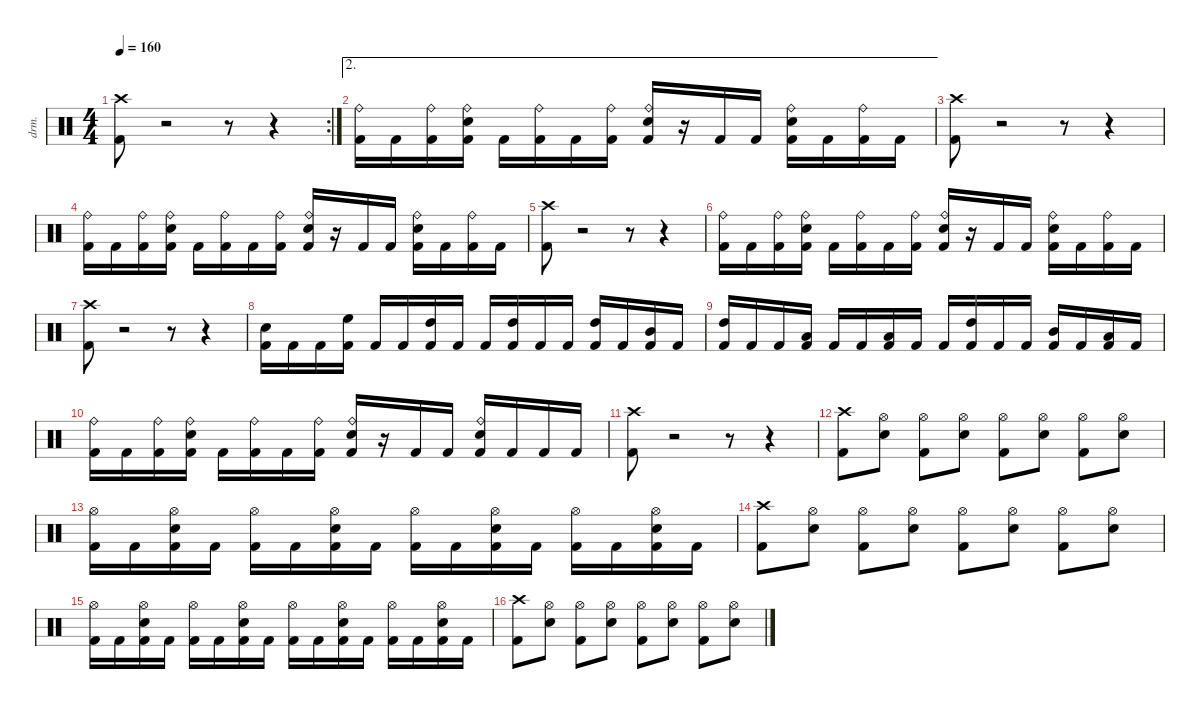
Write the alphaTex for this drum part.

\defaultSystemsLayout 4
\hideDynamics
\bracketExtendMode nobrackets
\track ("Menza" "drm.") {instrument percussion}
\staff {score}
\articulation defaults
\rc 2
\ts (4 4)
\tempo 160
\clef neutral
\ks c
("Crash high (hit)" "Kick (hit) 2").8{dy f} r.2 r.8 r.4 |
\ae 2
("Ride (bell)" "Kick (hit) 2").16 "Kick (hit) 2".16 ("Ride (bell)" "Kick (hit) 2").16 ("Ride (bell)" "Snare (hit) 2" "Kick (hit) 2").16 "Kick (hit) 2".16 ("Ride (bell)" "Kick (hit) 2").16 "Kick (hit) 2".16 ("Ride (bell)" "Kick (hit) 2").16 ("Ride (bell)" "Snare (hit) 2" "Kick (hit) 2").16 r.16 "Kick (hit) 2".16 "Kick (hit) 2".16 ("Ride (bell)" "Snare (hit) 2" "Kick (hit) 2").16 "Kick (hit) 2".16 ("Ride (bell)" "Kick (hit) 2").16 "Kick (hit) 2".16 |
("Crash high (hit)" "Kick (hit) 2").8 r.2 r.8 r.4 |
("Ride (bell)" "Kick (hit) 2").16 "Kick (hit) 2".16 ("Ride (bell)" "Kick (hit) 2").16 ("Ride (bell)" "Snare (hit) 2" "Kick (hit) 2").16 "Kick (hit) 2".16 ("Ride (bell)" "Kick (hit) 2").16 "Kick (hit) 2".16 ("Ride (bell)" "Kick (hit) 2").16 ("Ride (bell)" "Snare (hit) 2" "Kick (hit) 2").16 r.16 "Kick (hit) 2".16 "Kick (hit) 2".16 ("Ride (bell)" "Snare (hit) 2" "Kick (hit) 2").16 "Kick (hit) 2".16 ("Ride (bell)" "Kick (hit) 2").16 "Kick (hit) 2".16 |
("Crash high (hit)" "Kick (hit) 2").8 r.2 r.8 r.4 |
("Ride (bell)" "Kick (hit) 2").16 "Kick (hit) 2".16 ("Ride (bell)" "Kick (hit) 2").16 ("Ride (bell)" "Snare (hit) 2" "Kick (hit) 2").16 "Kick (hit) 2".16 ("Ride (bell)" "Kick (hit) 2").16 "Kick (hit) 2".16 ("Ride (bell)" "Kick (hit) 2").16 ("Ride (bell)" "Snare (hit) 2" "Kick (hit) 2").16 r.16 "Kick (hit) 2".16 "Kick (hit) 2".16 ("Ride (bell)" "Snare (hit) 2" "Kick (hit) 2").16 "Kick (hit) 2".16 ("Ride (bell)" "Kick (hit) 2").16 "Kick (hit) 2".16 |
("Crash high (hit)" "Kick (hit) 2").8 r.2 r.8 r.4 |
("Snare (hit) 2" "Kick (hit) 2").16 "Kick (hit) 2".16 "Kick (hit) 2".16 ("High Floor Tom (hit)" "Kick (hit) 2").16 "Kick (hit) 2".16 "Kick (hit) 2".16 ("High Tom (hit)" "Kick (hit) 2").16 "Kick (hit) 2".16 "Kick (hit) 2".16 ("High Tom (hit)" "Kick (hit) 2").16 "Kick (hit) 2".16 "Kick (hit) 2".16 ("High Tom (hit)" "Kick (hit) 2").16 "Kick (hit) 2".16 ("Mid Tom (hit)" "Kick (hit) 2").16 "Kick (hit) 2".16 |
("High Tom (hit)" "Kick (hit) 2").16 "Kick (hit) 2".16 "Kick (hit) 2".16 ("Low Tom (hit)" "Kick (hit) 2").16 "Kick (hit) 2".16 "Kick (hit) 2".16 ("Low Tom (hit)" "Kick (hit) 2").16 "Kick (hit) 2".16 "Kick (hit) 2".16 ("High Tom (hit)" "Kick (hit) 2").16 "Kick (hit) 2".16 "Kick (hit) 2".16 ("Mid Tom (hit)" "Kick (hit) 2").16 "Kick (hit) 2".16 ("Low Tom (hit)" "Kick (hit) 2").16 "Kick (hit) 2".16 |
("Ride (bell)" "Kick (hit) 2").16 "Kick (hit) 2".16 ("Ride (bell)" "Kick (hit) 2").16 ("Ride (bell)" "Snare (hit) 2" "Kick (hit) 2").16 "Kick (hit) 2".16 ("Ride (bell)" "Kick (hit) 2").16 "Kick (hit) 2".16 ("Ride (bell)" "Kick (hit) 2").16 ("Ride (bell)" "Snare (hit) 2" "Kick (hit) 2").16 r.16 "Kick (hit) 2".16 "Kick (hit) 2".16 ("Ride (bell)" "Snare (hit) 2" "Kick (hit) 2").16 "Kick (hit) 2".16 "Kick (hit) 2".16 "Kick (hit) 2".16 |
("Crash high (hit)" "Kick (hit) 2").8 r.2 r.8 r.4 |
("Crash high (hit)" "Kick (hit) 2").8 ("Hi-Hat (open)" "Snare (hit) 2").8 ("Hi-Hat (open)" "Kick (hit) 2").8 ("Hi-Hat (open)" "Snare (hit) 2").8 ("Hi-Hat (open)" "Kick (hit) 2").8 ("Hi-Hat (open)" "Snare (hit) 2").8 ("Hi-Hat (open)" "Kick (hit) 2").8 ("Hi-Hat (open)" "Snare (hit) 2").8 |
("Hi-Hat (open)" "Kick (hit) 2").16 "Kick (hit) 2".16 ("Hi-Hat (open)" "Snare (hit) 2" "Kick (hit) 2").16 "Kick (hit) 2".16 ("Hi-Hat (open)" "Kick (hit) 2").16 "Kick (hit) 2".16 ("Hi-Hat (open)" "Snare (hit) 2" "Kick (hit) 2").16 "Kick (hit) 2".16 ("Hi-Hat (open)" "Kick (hit) 2").16 "Kick (hit) 2".16 ("Hi-Hat (open)" "Snare (hit) 2" "Kick (hit) 2").16 "Kick (hit) 2".16 ("Hi-Hat (open)" "Kick (hit) 2").16 "Kick (hit) 2".16 ("Hi-Hat (open)" "Snare (hit) 2" "Kick (hit) 2").16 "Kick (hit) 2".16 |
("Crash high (hit)" "Kick (hit) 2").8 ("Hi-Hat (open)" "Snare (hit) 2").8 ("Hi-Hat (open)" "Kick (hit) 2").8 ("Hi-Hat (open)" "Snare (hit) 2").8 ("Hi-Hat (open)" "Kick (hit) 2").8 ("Hi-Hat (open)" "Snare (hit) 2").8 ("Hi-Hat (open)" "Kick (hit) 2").8 ("Hi-Hat (open)" "Snare (hit) 2").8 |
("Hi-Hat (open)" "Kick (hit) 2").16 "Kick (hit) 2".16 ("Hi-Hat (open)" "Snare (hit) 2" "Kick (hit) 2").16 "Kick (hit) 2".16 ("Hi-Hat (open)" "Kick (hit) 2").16 "Kick (hit) 2".16 ("Hi-Hat (open)" "Snare (hit) 2" "Kick (hit) 2").16 "Kick (hit) 2".16 ("Hi-Hat (open)" "Kick (hit) 2").16 "Kick (hit) 2".16 ("Hi-Hat (open)" "Snare (hit) 2" "Kick (hit) 2").16 "Kick (hit) 2".16 ("Hi-Hat (open)" "Kick (hit) 2").16 "Kick (hit) 2".16 ("Hi-Hat (open)" "Snare (hit) 2" "Kick (hit) 2").16 "Kick (hit) 2".16 |
("Crash high (hit)" "Kick (hit) 2").8 ("Hi-Hat (open)" "Snare (hit) 2").8 ("Hi-Hat (open)" "Kick (hit) 2").8 ("Hi-Hat (open)" "Snare (hit) 2").8 ("Hi-Hat (open)" "Kick (hit) 2").8 ("Hi-Hat (open)" "Snare (hit) 2").8 ("Hi-Hat (open)" "Kick (hit) 2").8 ("Hi-Hat (open)" "Snare (hit) 2").8
